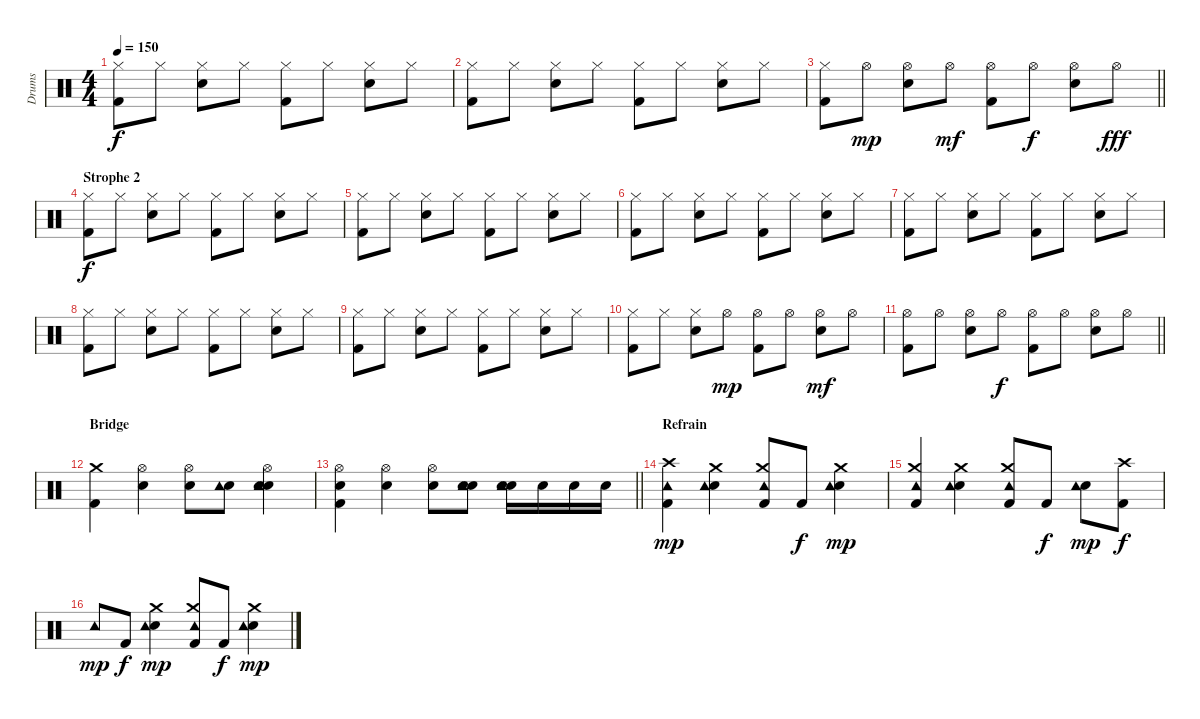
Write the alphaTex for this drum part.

\track ("Drums" "Drums") {instrument percussion}
\staff {score}
\articulation defaults
\ts (4 4)
\tempo 150
\clef neutral
\ks c
("Hi-Hat (closed)" "Kick (hit) 2").8{dy f} "Hi-Hat (closed)".8 ("Hi-Hat (closed)" "Snare (hit) 2").8 "Hi-Hat (closed)".8 ("Hi-Hat (closed)" "Kick (hit) 2").8 "Hi-Hat (closed)".8 ("Hi-Hat (closed)" "Snare (hit) 2").8 "Hi-Hat (closed)".8 |
("Hi-Hat (closed)" "Kick (hit) 2").8 "Hi-Hat (closed)".8 ("Hi-Hat (closed)" "Snare (hit) 2").8 "Hi-Hat (closed)".8 ("Hi-Hat (closed)" "Kick (hit) 2").8 "Hi-Hat (closed)".8 ("Hi-Hat (closed)" "Snare (hit) 2").8 "Hi-Hat (closed)".8 |
\barLineRight lightlight
("Hi-Hat (closed)" "Kick (hit) 2").8 "Hi-Hat (open)".8{dy mp} ("Hi-Hat (open)" "Snare (hit) 2").8 "Hi-Hat (open)".8{dy mf} ("Hi-Hat (open)" "Kick (hit) 2").8 "Hi-Hat (open)".8{dy f} ("Hi-Hat (open)" "Snare (hit) 2").8 "Hi-Hat (open)".8{dy fff} |
\section ("" "Strophe 2")
("Hi-Hat (closed)" "Kick (hit) 2").8{dy f} "Hi-Hat (closed)".8 ("Hi-Hat (closed)" "Snare (hit) 2").8 "Hi-Hat (closed)".8 ("Hi-Hat (closed)" "Kick (hit) 2").8 "Hi-Hat (closed)".8 ("Hi-Hat (closed)" "Snare (hit) 2").8 "Hi-Hat (closed)".8 |
("Hi-Hat (closed)" "Kick (hit) 2").8 "Hi-Hat (closed)".8 ("Hi-Hat (closed)" "Snare (hit) 2").8 "Hi-Hat (closed)".8 ("Hi-Hat (closed)" "Kick (hit) 2").8 "Hi-Hat (closed)".8 ("Hi-Hat (closed)" "Snare (hit) 2").8 "Hi-Hat (closed)".8 |
("Hi-Hat (closed)" "Kick (hit) 2").8 "Hi-Hat (closed)".8 ("Hi-Hat (closed)" "Snare (hit) 2").8 "Hi-Hat (closed)".8 ("Hi-Hat (closed)" "Kick (hit) 2").8 "Hi-Hat (closed)".8 ("Hi-Hat (closed)" "Snare (hit) 2").8 "Hi-Hat (closed)".8 |
("Hi-Hat (closed)" "Kick (hit) 2").8 "Hi-Hat (closed)".8 ("Hi-Hat (closed)" "Snare (hit) 2").8 "Hi-Hat (closed)".8 ("Hi-Hat (closed)" "Kick (hit) 2").8 "Hi-Hat (closed)".8 ("Hi-Hat (closed)" "Snare (hit) 2").8 "Hi-Hat (closed)".8 |
("Hi-Hat (closed)" "Kick (hit) 2").8 "Hi-Hat (closed)".8 ("Hi-Hat (closed)" "Snare (hit) 2").8 "Hi-Hat (closed)".8 ("Hi-Hat (closed)" "Kick (hit) 2").8 "Hi-Hat (closed)".8 ("Hi-Hat (closed)" "Snare (hit) 2").8 "Hi-Hat (closed)".8 |
("Hi-Hat (closed)" "Kick (hit) 2").8 "Hi-Hat (closed)".8 ("Hi-Hat (closed)" "Snare (hit) 2").8 "Hi-Hat (closed)".8 ("Hi-Hat (closed)" "Kick (hit) 2").8 "Hi-Hat (closed)".8 ("Hi-Hat (closed)" "Snare (hit) 2").8 "Hi-Hat (closed)".8 |
("Hi-Hat (closed)" "Kick (hit) 2").8 "Hi-Hat (closed)".8 ("Hi-Hat (closed)" "Snare (hit) 2").8 "Hi-Hat (open)".8{dy mp} ("Hi-Hat (open)" "Kick (hit) 2").8 "Hi-Hat (open)".8 ("Hi-Hat (open)" "Snare (hit) 2").8{dy mf} "Hi-Hat (open)".8 |
\barLineRight lightlight
("Hi-Hat (open)" "Kick (hit) 2").8 "Hi-Hat (open)".8 ("Hi-Hat (open)" "Snare (hit) 2").8 "Hi-Hat (open)".8{dy f} ("Hi-Hat (open)" "Kick (hit) 2").8 "Hi-Hat (open)".8 ("Hi-Hat (open)" "Snare (hit) 2").8 "Hi-Hat (open)".8 |
\section ("" "Bridge")
("Crash medium (hit)" "Kick (hit) 2").4 ("Hi-Hat (open)" "Snare (hit) 2").4 ("Hi-Hat (open)" "Snare (hit) 2").8 ("Hand Clap (hit)" "Tambourine (hit)").8 ("Hi-Hat (open)" "Snare (hit) 2" "Hand Clap (hit)" "Tambourine (hit)").4 |
\barLineRight lightlight
("Hi-Hat (open)" "Snare (hit) 2" "Kick (hit) 2").4 ("Hi-Hat (open)" "Snare (hit) 2").4 ("Hi-Hat (open)" "Snare (hit) 2").8 ("Snare (hit) 2" "Hand Clap (hit)" "Tambourine (hit)").8 ("Snare (hit) 2" "Hand Clap (hit)" "Tambourine (hit)").16 "Snare (hit) 2".16 "Snare (hit) 2".16 "Snare (hit) 2".16 |
\section ("" "Refrain")
("Crash high (hit)" "Kick (hit) 2" "Tambourine (hit)").4{dy mp} ("Crash medium (hit)" "Snare (hit) 2" "Tambourine (hit)").4 ("Crash medium (hit)" "Kick (hit) 2" "Tambourine (hit)").8 "Kick (hit) 2".8{dy f} ("Crash medium (hit)" "Snare (hit) 2" "Tambourine (hit)").4{dy mp} |
("Crash medium (hit)" "Kick (hit) 2" "Tambourine (hit)").4 ("Crash medium (hit)" "Snare (hit) 2" "Tambourine (hit)").4 ("Crash medium (hit)" "Kick (hit) 2" "Tambourine (hit)").8 "Kick (hit) 2".8{dy f} ("Snare (hit) 2" "Tambourine (hit)").8{dy mp} ("Crash high (hit)" "Kick (hit) 2").8{dy f} |
"Tambourine (hit)".8{dy mp} "Kick (hit) 2".8{dy f} ("Crash medium (hit)" "Snare (hit) 2" "Tambourine (hit)").4{dy mp} ("Crash medium (hit)" "Kick (hit) 2" "Tambourine (hit)").8 "Kick (hit) 2".8{dy f} ("Crash medium (hit)" "Snare (hit) 2" "Tambourine (hit)").4{dy mp}
